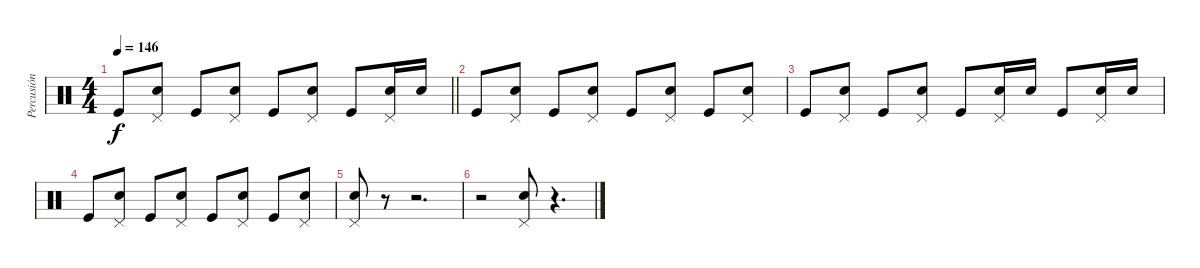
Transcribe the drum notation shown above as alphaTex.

\track ("Percusión" "Percusión") {instrument percussion}
\staff {score}
\articulation defaults
\ts (4 4)
\tempo 146
\clef neutral
\barLineRight lightlight
\ks c "Kick (hit)".8{dy f}
("Pedal Hi-Hat (hit)" "Snare (hit) 2").8 "Kick (hit)".8 ("Pedal Hi-Hat (hit)" "Snare (hit) 2").8 "Kick (hit)".8 ("Pedal Hi-Hat (hit)" "Snare (hit) 2").8 "Kick (hit)".8 ("Pedal Hi-Hat (hit)" "Snare (hit) 2").16 "Snare (hit) 2".16 |
"Kick (hit)".8 ("Pedal Hi-Hat (hit)" "Snare (hit) 2").8 "Kick (hit)".8 ("Pedal Hi-Hat (hit)" "Snare (hit) 2").8 "Kick (hit)".8 ("Pedal Hi-Hat (hit)" "Snare (hit) 2").8 "Kick (hit)".8 ("Pedal Hi-Hat (hit)" "Snare (hit) 2").8 |
"Kick (hit)".8 ("Pedal Hi-Hat (hit)" "Snare (hit) 2").8 "Kick (hit)".8 ("Pedal Hi-Hat (hit)" "Snare (hit) 2").8 "Kick (hit)".8 ("Pedal Hi-Hat (hit)" "Snare (hit) 2").16 "Snare (hit) 2".16 "Kick (hit)".8 ("Pedal Hi-Hat (hit)" "Snare (hit) 2").16 "Snare (hit) 2".16 |
"Kick (hit)".8 ("Pedal Hi-Hat (hit)" "Snare (hit) 2").8 "Kick (hit)".8 ("Pedal Hi-Hat (hit)" "Snare (hit) 2").8 "Kick (hit)".8 ("Pedal Hi-Hat (hit)" "Snare (hit) 2").8 "Kick (hit)".8 ("Pedal Hi-Hat (hit)" "Snare (hit) 2").8 |
("Pedal Hi-Hat (hit)" "Snare (hit) 2").8 r.8 r.2{d} |
r.2 ("Pedal Hi-Hat (hit)" "Snare (hit) 2").8 r.4{d}
